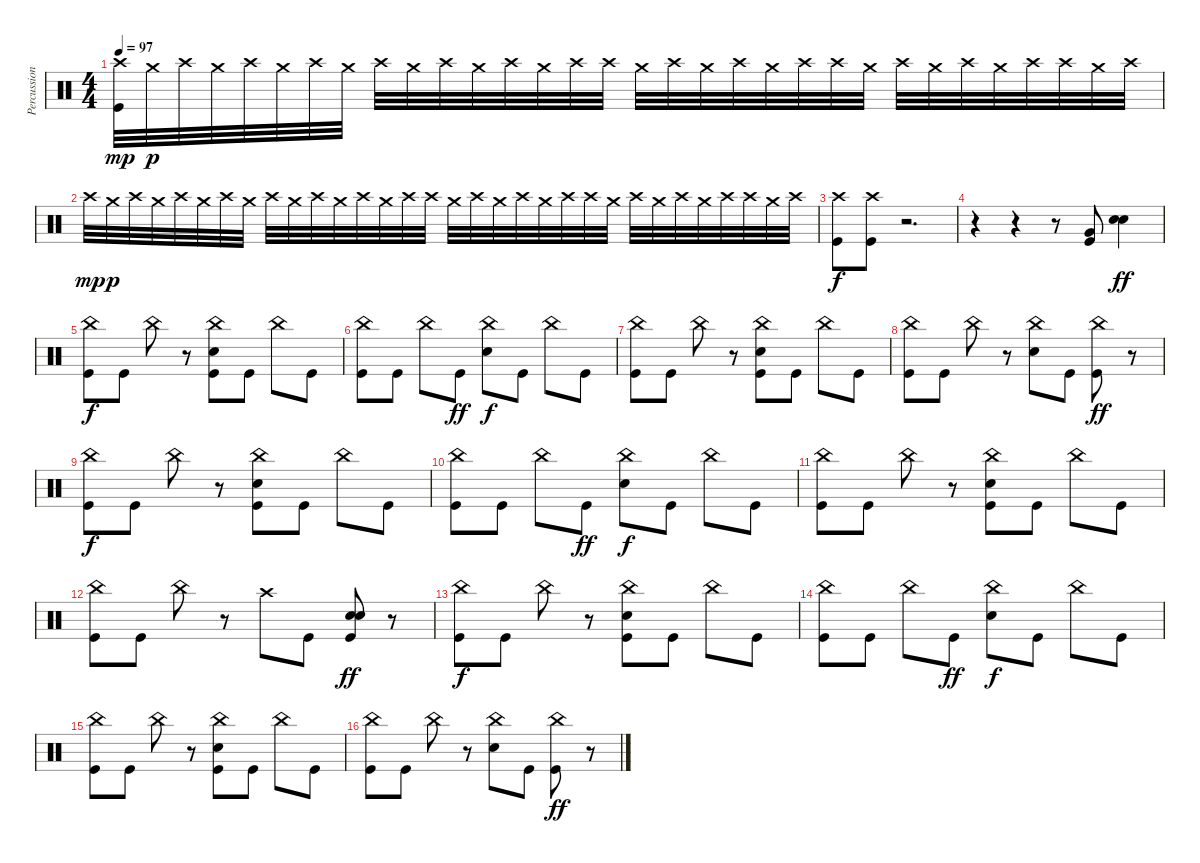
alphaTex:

\track ("Percussion" "Percussion") {instrument percussion}
\staff {score}
\articulation defaults
\ts (4 4)
\tempo 97
\clef neutral
\ks c
("Crash high (hit)" "Kick (hit)").32{dy mp} "Crash medium (hit)".32{dy p} "Crash high (hit)".32 "Crash medium (hit)".32 "Crash high (hit)".32 "Crash medium (hit)".32 "Crash high (hit)".32 "Crash medium (hit)".32 "Crash high (hit)".32 "Crash medium (hit)".32 "Crash high (hit)".32 "Crash medium (hit)".32 "Crash high (hit)".32 "Crash medium (hit)".32 "Crash high (hit)".32 "Crash high (hit)".32 "Crash medium (hit)".32 "Crash high (hit)".32 "Crash medium (hit)".32 "Crash high (hit)".32 "Crash medium (hit)".32 "Crash high (hit)".32 "Crash high (hit)".32 "Crash medium (hit)".32 "Crash high (hit)".32 "Crash medium (hit)".32 "Crash high (hit)".32 "Crash medium (hit)".32 "Crash high (hit)".32 "Crash high (hit)".32 "Crash medium (hit)".32 "Crash high (hit)".32 |
"Crash high (hit)".32{dy mp} "Crash medium (hit)".32{dy p} "Crash high (hit)".32 "Crash medium (hit)".32 "Crash high (hit)".32 "Crash medium (hit)".32 "Crash high (hit)".32 "Crash medium (hit)".32 "Crash high (hit)".32 "Crash medium (hit)".32 "Crash high (hit)".32 "Crash medium (hit)".32 "Crash high (hit)".32 "Crash medium (hit)".32 "Crash high (hit)".32 "Crash high (hit)".32 "Crash medium (hit)".32 "Crash high (hit)".32 "Crash medium (hit)".32 "Crash high (hit)".32 "Crash medium (hit)".32 "Crash high (hit)".32 "Crash high (hit)".32 "Crash medium (hit)".32 "Crash high (hit)".32 "Crash medium (hit)".32 "Crash high (hit)".32 "Crash medium (hit)".32 "Crash high (hit)".32 "Crash high (hit)".32 "Crash medium (hit)".32 "Crash high (hit)".32 |
("Crash high (hit)" "Kick (hit)").8{dy f} ("Crash high (hit)" "Kick (hit)").8 r.2{d} |
r.4 r.4 r.8 ("Very Low Tom (hit)" "Kick (hit)").8 ("Snare (hit) 2" "Snare (hit) 2").4{dy ff} |
("China (hit)" "Kick (hit)").8{dy f} "Kick (hit)".8 "China (hit)".8 r.8 ("China (hit)" "Snare (hit) 2" "Kick (hit)").8 "Kick (hit)".8 "China (hit)".8 "Kick (hit)".8 |
("China (hit)" "Kick (hit)").8 "Kick (hit)".8 "China (hit)".8 "Kick (hit)".8{dy ff} ("China (hit)" "Snare (hit) 2").8{dy f} "Kick (hit)".8 "China (hit)".8 "Kick (hit)".8 |
("China (hit)" "Kick (hit)").8 "Kick (hit)".8 "China (hit)".8 r.8 ("China (hit)" "Snare (hit) 2" "Kick (hit)").8 "Kick (hit)".8 "China (hit)".8 "Kick (hit)".8 |
("China (hit)" "Kick (hit)").8 "Kick (hit)".8 "China (hit)".8 r.8 ("China (hit)" "Snare (hit) 2").8 "Kick (hit)".8 ("China (hit)" "Kick (hit)").8{dy ff} r.8 |
("China (hit)" "Kick (hit)").8{dy f} "Kick (hit)".8 "China (hit)".8 r.8 ("China (hit)" "Snare (hit) 2" "Kick (hit)").8 "Kick (hit)".8 "China (hit)".8 "Kick (hit)".8 |
("China (hit)" "Kick (hit)").8 "Kick (hit)".8 "China (hit)".8 "Kick (hit)".8{dy ff} ("China (hit)" "Snare (hit) 2").8{dy f} "Kick (hit)".8 "China (hit)".8 "Kick (hit)".8 |
("China (hit)" "Kick (hit)").8 "Kick (hit)".8 "China (hit)".8 r.8 ("China (hit)" "Snare (hit) 2" "Kick (hit)").8 "Kick (hit)".8 "China (hit)".8 "Kick (hit)".8 |
("China (hit)" "Kick (hit)").8 "Kick (hit)".8 "China (hit)".8 r.8 "Crash high (hit)".8 "Kick (hit)".8 ("Snare (hit) 2" "Snare (hit) 2" "Kick (hit)").8{dy ff} r.8 |
("China (hit)" "Kick (hit)").8{dy f} "Kick (hit)".8 "China (hit)".8 r.8 ("China (hit)" "Snare (hit) 2" "Kick (hit)").8 "Kick (hit)".8 "China (hit)".8 "Kick (hit)".8 |
("China (hit)" "Kick (hit)").8 "Kick (hit)".8 "China (hit)".8 "Kick (hit)".8{dy ff} ("China (hit)" "Snare (hit) 2").8{dy f} "Kick (hit)".8 "China (hit)".8 "Kick (hit)".8 |
("China (hit)" "Kick (hit)").8 "Kick (hit)".8 "China (hit)".8 r.8 ("China (hit)" "Snare (hit) 2" "Kick (hit)").8 "Kick (hit)".8 "China (hit)".8 "Kick (hit)".8 |
("China (hit)" "Kick (hit)").8 "Kick (hit)".8 "China (hit)".8 r.8 ("China (hit)" "Snare (hit) 2").8 "Kick (hit)".8 ("China (hit)" "Kick (hit)").8{dy ff} r.8
